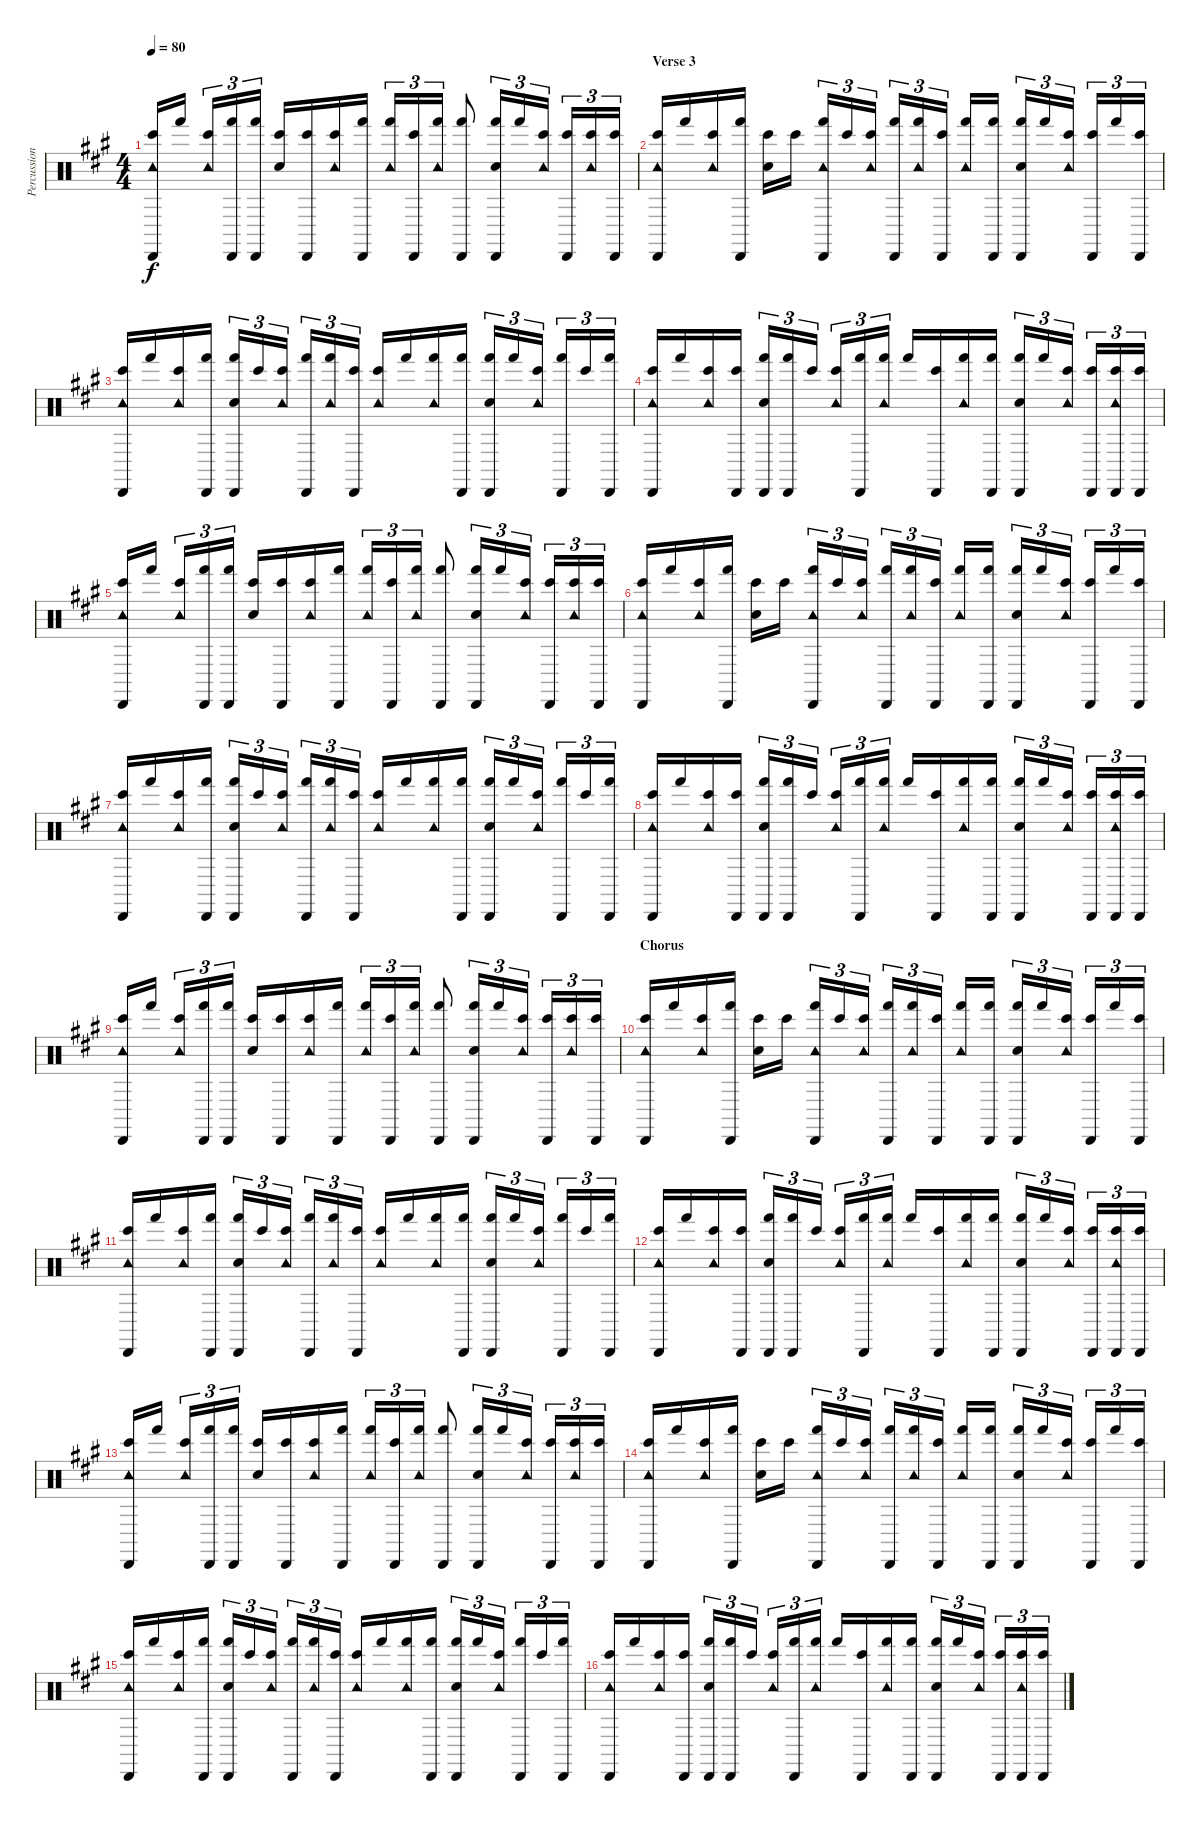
\track ("Percussion" "Percussion") {instrument percussion}
\staff {score}
\articulation defaults
\ts (4 4)
\tempo 80
\clef neutral
\ks a
("Cabasa (hit)" "Tambourine (hit)" "Bongo High (hit)").16{dy f} "Hand (hit)".16 ("Tambourine (hit)" "Bongo High (hit)").16{tu (3 2)} ("Cabasa (hit)" "Hand (hit)").16{tu (3 2)} ("Cabasa (hit)" "Hand (hit)").16{tu (3 2)} ("Hand Clap (hit)" "Bongo High (hit)").16 ("Cabasa (hit)" "Bongo High (hit)").16 ("Tambourine (hit)" "Bongo High (hit)").16 ("Cabasa (hit)" "Hand (hit)").16 ("Tambourine (hit)" "Hand (hit)").16{tu (3 2)} ("Cabasa (hit)" "Bongo High (hit)").16{tu (3 2)} ("Tambourine (hit)" "Hand (hit)").16{tu (3 2)} ("Cabasa (hit)" "Hand (hit)").8 ("Cabasa (hit)" "Hand Clap (hit)" "Hand (hit)").16{tu (3 2)} "Hand (hit)".16{tu (3 2)} ("Tambourine (hit)" "Bongo High (hit)").16{tu (3 2)} ("Cabasa (hit)" "Bongo High (hit)").16{tu (3 2)} ("Tambourine (hit)" "Bongo High (hit)").16{tu (3 2)} ("Cabasa (hit)" "Bongo High (hit)").16{tu (3 2)} |
\section ("" "Verse 3")
("Cabasa (hit)" "Tambourine (hit)" "Bongo High (hit)").16 "Hand (hit)".16 ("Tambourine (hit)" "Bongo High (hit)").16 ("Cabasa (hit)" "Hand (hit)").16 ("Hand Clap (hit)" "Bongo High (hit)").16 "Bongo High (hit)".16 ("Cabasa (hit)" "Tambourine (hit)" "Hand (hit)").16{tu (3 2)} "Bongo High (hit)".16{tu (3 2)} ("Tambourine (hit)" "Bongo High (hit)").16{tu (3 2)} ("Cabasa (hit)" "Hand (hit)").16{tu (3 2)} ("Tambourine (hit)" "Hand (hit)").16{tu (3 2)} ("Cabasa (hit)" "Bongo High (hit)").16{tu (3 2)} ("Tambourine (hit)" "Hand (hit)").16 ("Cabasa (hit)" "Hand (hit)").16 ("Cabasa (hit)" "Hand Clap (hit)" "Hand (hit)").16{tu (3 2)} "Hand (hit)".16{tu (3 2)} ("Tambourine (hit)" "Bongo High (hit)").16{tu (3 2)} ("Cabasa (hit)" "Bongo High (hit)").16{tu (3 2)} "Hand (hit)".16{tu (3 2)} ("Cabasa (hit)" "Bongo High (hit)").16{tu (3 2)} |
("Cabasa (hit)" "Tambourine (hit)" "Bongo High (hit)").16 "Hand (hit)".16 ("Tambourine (hit)" "Bongo High (hit)").16 ("Cabasa (hit)" "Hand (hit)").16 ("Cabasa (hit)" "Hand Clap (hit)" "Hand (hit)").16{tu (3 2)} "Bongo High (hit)".16{tu (3 2)} ("Tambourine (hit)" "Bongo High (hit)").16{tu (3 2)} ("Cabasa (hit)" "Hand (hit)").16{tu (3 2)} ("Tambourine (hit)" "Hand (hit)").16{tu (3 2)} ("Cabasa (hit)" "Bongo High (hit)").16{tu (3 2)} ("Tambourine (hit)" "Bongo High (hit)").16 "Hand (hit)".16 ("Tambourine (hit)" "Hand (hit)").16 ("Cabasa (hit)" "Hand (hit)").16 ("Cabasa (hit)" "Hand Clap (hit)" "Hand (hit)").16{tu (3 2)} "Hand (hit)".16{tu (3 2)} ("Tambourine (hit)" "Bongo High (hit)").16{tu (3 2)} ("Cabasa (hit)" "Hand (hit)").16{tu (3 2)} "Bongo High (hit)".16{tu (3 2)} ("Cabasa (hit)" "Hand (hit)").16{tu (3 2)} |
("Cabasa (hit)" "Tambourine (hit)" "Bongo High (hit)").16 "Hand (hit)".16 ("Tambourine (hit)" "Bongo High (hit)").16 ("Cabasa (hit)" "Bongo High (hit)").16 ("Cabasa (hit)" "Hand Clap (hit)" "Hand (hit)").16{tu (3 2)} ("Cabasa (hit)" "Hand (hit)").16{tu (3 2)} "Bongo High (hit)".16{tu (3 2)} ("Tambourine (hit)" "Bongo High (hit)").16{tu (3 2)} ("Cabasa (hit)" "Hand (hit)").16{tu (3 2)} ("Tambourine (hit)" "Hand (hit)").16{tu (3 2)} "Hand (hit)".16 ("Cabasa (hit)" "Bongo High (hit)").16 ("Tambourine (hit)" "Hand (hit)").16 ("Cabasa (hit)" "Hand (hit)").16 ("Cabasa (hit)" "Hand Clap (hit)" "Hand (hit)").16{tu (3 2)} "Hand (hit)".16{tu (3 2)} ("Tambourine (hit)" "Bongo High (hit)").16{tu (3 2)} ("Cabasa (hit)" "Bongo High (hit)").16{tu (3 2)} ("Cabasa (hit)" "Tambourine (hit)" "Bongo High (hit)").16{tu (3 2)} ("Cabasa (hit)" "Bongo High (hit)").16{tu (3 2)} |
("Cabasa (hit)" "Tambourine (hit)" "Bongo High (hit)").16 "Hand (hit)".16 ("Tambourine (hit)" "Bongo High (hit)").16{tu (3 2)} ("Cabasa (hit)" "Hand (hit)").16{tu (3 2)} ("Cabasa (hit)" "Hand (hit)").16{tu (3 2)} ("Hand Clap (hit)" "Bongo High (hit)").16 ("Cabasa (hit)" "Bongo High (hit)").16 ("Tambourine (hit)" "Bongo High (hit)").16 ("Cabasa (hit)" "Hand (hit)").16 ("Tambourine (hit)" "Hand (hit)").16{tu (3 2)} ("Cabasa (hit)" "Bongo High (hit)").16{tu (3 2)} ("Tambourine (hit)" "Hand (hit)").16{tu (3 2)} ("Cabasa (hit)" "Hand (hit)").8 ("Cabasa (hit)" "Hand Clap (hit)" "Hand (hit)").16{tu (3 2)} "Hand (hit)".16{tu (3 2)} ("Tambourine (hit)" "Bongo High (hit)").16{tu (3 2)} ("Cabasa (hit)" "Bongo High (hit)").16{tu (3 2)} ("Tambourine (hit)" "Bongo High (hit)").16{tu (3 2)} ("Cabasa (hit)" "Bongo High (hit)").16{tu (3 2)} |
("Cabasa (hit)" "Tambourine (hit)" "Bongo High (hit)").16 "Hand (hit)".16 ("Tambourine (hit)" "Bongo High (hit)").16 ("Cabasa (hit)" "Hand (hit)").16 ("Hand Clap (hit)" "Bongo High (hit)").16 "Bongo High (hit)".16 ("Cabasa (hit)" "Tambourine (hit)" "Hand (hit)").16{tu (3 2)} "Bongo High (hit)".16{tu (3 2)} ("Tambourine (hit)" "Bongo High (hit)").16{tu (3 2)} ("Cabasa (hit)" "Hand (hit)").16{tu (3 2)} ("Tambourine (hit)" "Hand (hit)").16{tu (3 2)} ("Cabasa (hit)" "Bongo High (hit)").16{tu (3 2)} ("Tambourine (hit)" "Hand (hit)").16 ("Cabasa (hit)" "Hand (hit)").16 ("Cabasa (hit)" "Hand Clap (hit)" "Hand (hit)").16{tu (3 2)} "Hand (hit)".16{tu (3 2)} ("Tambourine (hit)" "Bongo High (hit)").16{tu (3 2)} ("Cabasa (hit)" "Bongo High (hit)").16{tu (3 2)} "Hand (hit)".16{tu (3 2)} ("Cabasa (hit)" "Bongo High (hit)").16{tu (3 2)} |
("Cabasa (hit)" "Tambourine (hit)" "Bongo High (hit)").16 "Hand (hit)".16 ("Tambourine (hit)" "Bongo High (hit)").16 ("Cabasa (hit)" "Hand (hit)").16 ("Cabasa (hit)" "Hand Clap (hit)" "Hand (hit)").16{tu (3 2)} "Bongo High (hit)".16{tu (3 2)} ("Tambourine (hit)" "Bongo High (hit)").16{tu (3 2)} ("Cabasa (hit)" "Hand (hit)").16{tu (3 2)} ("Tambourine (hit)" "Hand (hit)").16{tu (3 2)} ("Cabasa (hit)" "Bongo High (hit)").16{tu (3 2)} ("Tambourine (hit)" "Bongo High (hit)").16 "Hand (hit)".16 ("Tambourine (hit)" "Hand (hit)").16 ("Cabasa (hit)" "Hand (hit)").16 ("Cabasa (hit)" "Hand Clap (hit)" "Hand (hit)").16{tu (3 2)} "Hand (hit)".16{tu (3 2)} ("Tambourine (hit)" "Bongo High (hit)").16{tu (3 2)} ("Cabasa (hit)" "Hand (hit)").16{tu (3 2)} "Bongo High (hit)".16{tu (3 2)} ("Cabasa (hit)" "Hand (hit)").16{tu (3 2)} |
("Cabasa (hit)" "Tambourine (hit)" "Bongo High (hit)").16 "Hand (hit)".16 ("Tambourine (hit)" "Bongo High (hit)").16 ("Cabasa (hit)" "Bongo High (hit)").16 ("Cabasa (hit)" "Hand Clap (hit)" "Hand (hit)").16{tu (3 2)} ("Cabasa (hit)" "Hand (hit)").16{tu (3 2)} "Bongo High (hit)".16{tu (3 2)} ("Tambourine (hit)" "Bongo High (hit)").16{tu (3 2)} ("Cabasa (hit)" "Hand (hit)").16{tu (3 2)} ("Tambourine (hit)" "Hand (hit)").16{tu (3 2)} "Hand (hit)".16 ("Cabasa (hit)" "Bongo High (hit)").16 ("Tambourine (hit)" "Hand (hit)").16 ("Cabasa (hit)" "Hand (hit)").16 ("Cabasa (hit)" "Hand Clap (hit)" "Hand (hit)").16{tu (3 2)} "Hand (hit)".16{tu (3 2)} ("Tambourine (hit)" "Bongo High (hit)").16{tu (3 2)} ("Cabasa (hit)" "Bongo High (hit)").16{tu (3 2)} ("Cabasa (hit)" "Tambourine (hit)" "Bongo High (hit)").16{tu (3 2)} ("Cabasa (hit)" "Bongo High (hit)").16{tu (3 2)} |
("Cabasa (hit)" "Tambourine (hit)" "Bongo High (hit)").16 "Hand (hit)".16 ("Tambourine (hit)" "Bongo High (hit)").16{tu (3 2)} ("Cabasa (hit)" "Hand (hit)").16{tu (3 2)} ("Cabasa (hit)" "Hand (hit)").16{tu (3 2)} ("Hand Clap (hit)" "Bongo High (hit)").16 ("Cabasa (hit)" "Bongo High (hit)").16 ("Tambourine (hit)" "Bongo High (hit)").16 ("Cabasa (hit)" "Hand (hit)").16 ("Tambourine (hit)" "Hand (hit)").16{tu (3 2)} ("Cabasa (hit)" "Bongo High (hit)").16{tu (3 2)} ("Tambourine (hit)" "Hand (hit)").16{tu (3 2)} ("Cabasa (hit)" "Hand (hit)").8 ("Cabasa (hit)" "Hand Clap (hit)" "Hand (hit)").16{tu (3 2)} "Hand (hit)".16{tu (3 2)} ("Tambourine (hit)" "Bongo High (hit)").16{tu (3 2)} ("Cabasa (hit)" "Bongo High (hit)").16{tu (3 2)} ("Tambourine (hit)" "Bongo High (hit)").16{tu (3 2)} ("Cabasa (hit)" "Bongo High (hit)").16{tu (3 2)} |
\section ("" "Chorus")
("Cabasa (hit)" "Tambourine (hit)" "Bongo High (hit)").16 "Hand (hit)".16 ("Tambourine (hit)" "Bongo High (hit)").16 ("Cabasa (hit)" "Hand (hit)").16 ("Hand Clap (hit)" "Bongo High (hit)").16 "Bongo High (hit)".16 ("Cabasa (hit)" "Tambourine (hit)" "Hand (hit)").16{tu (3 2)} "Bongo High (hit)".16{tu (3 2)} ("Tambourine (hit)" "Bongo High (hit)").16{tu (3 2)} ("Cabasa (hit)" "Hand (hit)").16{tu (3 2)} ("Tambourine (hit)" "Hand (hit)").16{tu (3 2)} ("Cabasa (hit)" "Bongo High (hit)").16{tu (3 2)} ("Tambourine (hit)" "Hand (hit)").16 ("Cabasa (hit)" "Hand (hit)").16 ("Cabasa (hit)" "Hand Clap (hit)" "Hand (hit)").16{tu (3 2)} "Hand (hit)".16{tu (3 2)} ("Tambourine (hit)" "Bongo High (hit)").16{tu (3 2)} ("Cabasa (hit)" "Bongo High (hit)").16{tu (3 2)} "Hand (hit)".16{tu (3 2)} ("Cabasa (hit)" "Bongo High (hit)").16{tu (3 2)} |
("Cabasa (hit)" "Tambourine (hit)" "Bongo High (hit)").16 "Hand (hit)".16 ("Tambourine (hit)" "Bongo High (hit)").16 ("Cabasa (hit)" "Hand (hit)").16 ("Cabasa (hit)" "Hand Clap (hit)" "Hand (hit)").16{tu (3 2)} "Bongo High (hit)".16{tu (3 2)} ("Tambourine (hit)" "Bongo High (hit)").16{tu (3 2)} ("Cabasa (hit)" "Hand (hit)").16{tu (3 2)} ("Tambourine (hit)" "Hand (hit)").16{tu (3 2)} ("Cabasa (hit)" "Bongo High (hit)").16{tu (3 2)} ("Tambourine (hit)" "Bongo High (hit)").16 "Hand (hit)".16 ("Tambourine (hit)" "Hand (hit)").16 ("Cabasa (hit)" "Hand (hit)").16 ("Cabasa (hit)" "Hand Clap (hit)" "Hand (hit)").16{tu (3 2)} "Hand (hit)".16{tu (3 2)} ("Tambourine (hit)" "Bongo High (hit)").16{tu (3 2)} ("Cabasa (hit)" "Hand (hit)").16{tu (3 2)} "Bongo High (hit)".16{tu (3 2)} ("Cabasa (hit)" "Hand (hit)").16{tu (3 2)} |
("Cabasa (hit)" "Tambourine (hit)" "Bongo High (hit)").16 "Hand (hit)".16 ("Tambourine (hit)" "Bongo High (hit)").16 ("Cabasa (hit)" "Bongo High (hit)").16 ("Cabasa (hit)" "Hand Clap (hit)" "Hand (hit)").16{tu (3 2)} ("Cabasa (hit)" "Hand (hit)").16{tu (3 2)} "Bongo High (hit)".16{tu (3 2)} ("Tambourine (hit)" "Bongo High (hit)").16{tu (3 2)} ("Cabasa (hit)" "Hand (hit)").16{tu (3 2)} ("Tambourine (hit)" "Hand (hit)").16{tu (3 2)} "Hand (hit)".16 ("Cabasa (hit)" "Bongo High (hit)").16 ("Tambourine (hit)" "Hand (hit)").16 ("Cabasa (hit)" "Hand (hit)").16 ("Cabasa (hit)" "Hand Clap (hit)" "Hand (hit)").16{tu (3 2)} "Hand (hit)".16{tu (3 2)} ("Tambourine (hit)" "Bongo High (hit)").16{tu (3 2)} ("Cabasa (hit)" "Bongo High (hit)").16{tu (3 2)} ("Cabasa (hit)" "Tambourine (hit)" "Bongo High (hit)").16{tu (3 2)} ("Cabasa (hit)" "Bongo High (hit)").16{tu (3 2)} |
("Cabasa (hit)" "Tambourine (hit)" "Bongo High (hit)").16 "Hand (hit)".16 ("Tambourine (hit)" "Bongo High (hit)").16{tu (3 2)} ("Cabasa (hit)" "Hand (hit)").16{tu (3 2)} ("Cabasa (hit)" "Hand (hit)").16{tu (3 2)} ("Hand Clap (hit)" "Bongo High (hit)").16 ("Cabasa (hit)" "Bongo High (hit)").16 ("Tambourine (hit)" "Bongo High (hit)").16 ("Cabasa (hit)" "Hand (hit)").16 ("Tambourine (hit)" "Hand (hit)").16{tu (3 2)} ("Cabasa (hit)" "Bongo High (hit)").16{tu (3 2)} ("Tambourine (hit)" "Hand (hit)").16{tu (3 2)} ("Cabasa (hit)" "Hand (hit)").8 ("Cabasa (hit)" "Hand Clap (hit)" "Hand (hit)").16{tu (3 2)} "Hand (hit)".16{tu (3 2)} ("Tambourine (hit)" "Bongo High (hit)").16{tu (3 2)} ("Cabasa (hit)" "Bongo High (hit)").16{tu (3 2)} ("Tambourine (hit)" "Bongo High (hit)").16{tu (3 2)} ("Cabasa (hit)" "Bongo High (hit)").16{tu (3 2)} |
("Cabasa (hit)" "Tambourine (hit)" "Bongo High (hit)").16 "Hand (hit)".16 ("Tambourine (hit)" "Bongo High (hit)").16 ("Cabasa (hit)" "Hand (hit)").16 ("Hand Clap (hit)" "Bongo High (hit)").16 "Bongo High (hit)".16 ("Cabasa (hit)" "Tambourine (hit)" "Hand (hit)").16{tu (3 2)} "Bongo High (hit)".16{tu (3 2)} ("Tambourine (hit)" "Bongo High (hit)").16{tu (3 2)} ("Cabasa (hit)" "Hand (hit)").16{tu (3 2)} ("Tambourine (hit)" "Hand (hit)").16{tu (3 2)} ("Cabasa (hit)" "Bongo High (hit)").16{tu (3 2)} ("Tambourine (hit)" "Hand (hit)").16 ("Cabasa (hit)" "Hand (hit)").16 ("Cabasa (hit)" "Hand Clap (hit)" "Hand (hit)").16{tu (3 2)} "Hand (hit)".16{tu (3 2)} ("Tambourine (hit)" "Bongo High (hit)").16{tu (3 2)} ("Cabasa (hit)" "Bongo High (hit)").16{tu (3 2)} "Hand (hit)".16{tu (3 2)} ("Cabasa (hit)" "Bongo High (hit)").16{tu (3 2)} |
("Cabasa (hit)" "Tambourine (hit)" "Bongo High (hit)").16 "Hand (hit)".16 ("Tambourine (hit)" "Bongo High (hit)").16 ("Cabasa (hit)" "Hand (hit)").16 ("Cabasa (hit)" "Hand Clap (hit)" "Hand (hit)").16{tu (3 2)} "Bongo High (hit)".16{tu (3 2)} ("Tambourine (hit)" "Bongo High (hit)").16{tu (3 2)} ("Cabasa (hit)" "Hand (hit)").16{tu (3 2)} ("Tambourine (hit)" "Hand (hit)").16{tu (3 2)} ("Cabasa (hit)" "Bongo High (hit)").16{tu (3 2)} ("Tambourine (hit)" "Bongo High (hit)").16 "Hand (hit)".16 ("Tambourine (hit)" "Hand (hit)").16 ("Cabasa (hit)" "Hand (hit)").16 ("Cabasa (hit)" "Hand Clap (hit)" "Hand (hit)").16{tu (3 2)} "Hand (hit)".16{tu (3 2)} ("Tambourine (hit)" "Bongo High (hit)").16{tu (3 2)} ("Cabasa (hit)" "Hand (hit)").16{tu (3 2)} "Bongo High (hit)".16{tu (3 2)} ("Cabasa (hit)" "Hand (hit)").16{tu (3 2)} |
("Cabasa (hit)" "Tambourine (hit)" "Bongo High (hit)").16 "Hand (hit)".16 ("Tambourine (hit)" "Bongo High (hit)").16 ("Cabasa (hit)" "Bongo High (hit)").16 ("Cabasa (hit)" "Hand Clap (hit)" "Hand (hit)").16{tu (3 2)} ("Cabasa (hit)" "Hand (hit)").16{tu (3 2)} "Bongo High (hit)".16{tu (3 2)} ("Tambourine (hit)" "Bongo High (hit)").16{tu (3 2)} ("Cabasa (hit)" "Hand (hit)").16{tu (3 2)} ("Tambourine (hit)" "Hand (hit)").16{tu (3 2)} "Hand (hit)".16 ("Cabasa (hit)" "Bongo High (hit)").16 ("Tambourine (hit)" "Hand (hit)").16 ("Cabasa (hit)" "Hand (hit)").16 ("Cabasa (hit)" "Hand Clap (hit)" "Hand (hit)").16{tu (3 2)} "Hand (hit)".16{tu (3 2)} ("Tambourine (hit)" "Bongo High (hit)").16{tu (3 2)} ("Cabasa (hit)" "Bongo High (hit)").16{tu (3 2)} ("Cabasa (hit)" "Tambourine (hit)" "Bongo High (hit)").16{tu (3 2)} ("Cabasa (hit)" "Bongo High (hit)").16{tu (3 2)}
